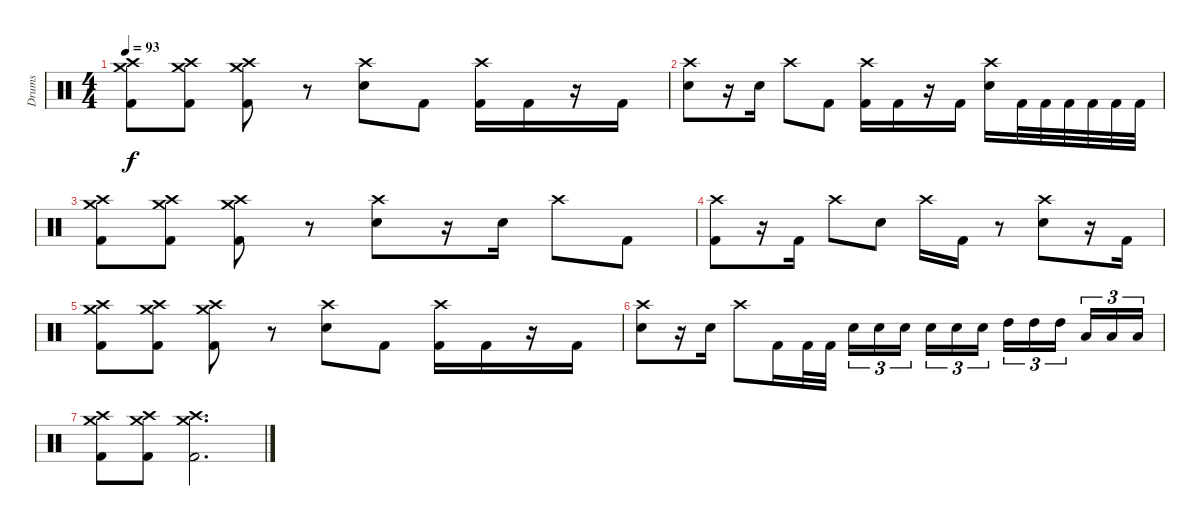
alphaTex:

\track ("Drums" "Drums") {instrument percussion}
\staff {score}
\articulation defaults
\ts (4 4)
\tempo 93
\clef neutral
\ks c
("Crash medium (hit)" "Crash high (hit)" "Kick (hit) 2").8{dy f} ("Crash medium (hit)" "Crash high (hit)" "Kick (hit) 2").8 ("Crash medium (hit)" "Crash high (hit)" "Kick (hit) 2").8 r.8 ("Crash high (hit)" "Electric Snare (hit)").8 "Kick (hit) 2".8 ("Crash high (hit)" "Kick (hit) 2").16 "Kick (hit) 2".16 r.16 "Kick (hit) 2".16 |
("Crash high (hit)" "Electric Snare (hit)").8 r.16 "Electric Snare (hit)".16 "Crash high (hit)".8 "Kick (hit) 2".8 ("Crash high (hit)" "Kick (hit) 2").16 "Kick (hit) 2".16 r.16 "Kick (hit) 2".16 ("Crash high (hit)" "Electric Snare (hit)").16 "Kick (hit) 2".32 "Kick (hit) 2".32 "Kick (hit) 2".32 "Kick (hit) 2".32 "Kick (hit) 2".32 "Kick (hit) 2".32 |
("Crash medium (hit)" "Crash high (hit)" "Kick (hit) 2").8 ("Crash medium (hit)" "Crash high (hit)" "Kick (hit) 2").8 ("Crash medium (hit)" "Crash high (hit)" "Kick (hit) 2").8 r.8 ("Crash high (hit)" "Electric Snare (hit)").8 r.16 "Electric Snare (hit)".16 "Crash high (hit)".8 "Kick (hit) 2".8 |
("Crash high (hit)" "Kick (hit) 2").8 r.16 "Kick (hit) 2".16 "Crash high (hit)".8 "Electric Snare (hit)".8 "Crash high (hit)".16 "Kick (hit) 2".16 r.8 ("Crash high (hit)" "Electric Snare (hit)").8 r.16 "Kick (hit) 2".16 |
("Crash medium (hit)" "Crash high (hit)" "Kick (hit) 2").8 ("Crash medium (hit)" "Crash high (hit)" "Kick (hit) 2").8 ("Crash medium (hit)" "Crash high (hit)" "Kick (hit) 2").8 r.8 ("Crash high (hit)" "Electric Snare (hit)").8 "Kick (hit) 2".8 ("Crash high (hit)" "Kick (hit) 2").16 "Kick (hit) 2".16 r.16 "Kick (hit) 2".16 |
("Crash high (hit)" "Electric Snare (hit)").8 r.16 "Electric Snare (hit)".16 "Crash high (hit)".8 "Kick (hit) 2".16 "Kick (hit) 2".32 "Kick (hit) 2".32 "Electric Snare (hit)".16{tu (3 2)} "Electric Snare (hit)".16{tu (3 2)} "Electric Snare (hit)".16{tu (3 2) beam splitsecondary} "Electric Snare (hit)".16{tu (3 2)} "Electric Snare (hit)".16{tu (3 2)} "Electric Snare (hit)".16{tu (3 2)} "High Tom (hit)".16{tu (3 2)} "High Tom (hit)".16{tu (3 2)} "High Tom (hit)".16{tu (3 2) beam splitsecondary} "Low Tom (hit)".16{tu (3 2)} "Low Tom (hit)".16{tu (3 2)} "Low Tom (hit)".16{tu (3 2)} |
("Crash medium (hit)" "Crash high (hit)" "Kick (hit) 2").8 ("Crash medium (hit)" "Crash high (hit)" "Kick (hit) 2").8 ("Crash medium (hit)" "Crash high (hit)" "Kick (hit) 2").2{d}
